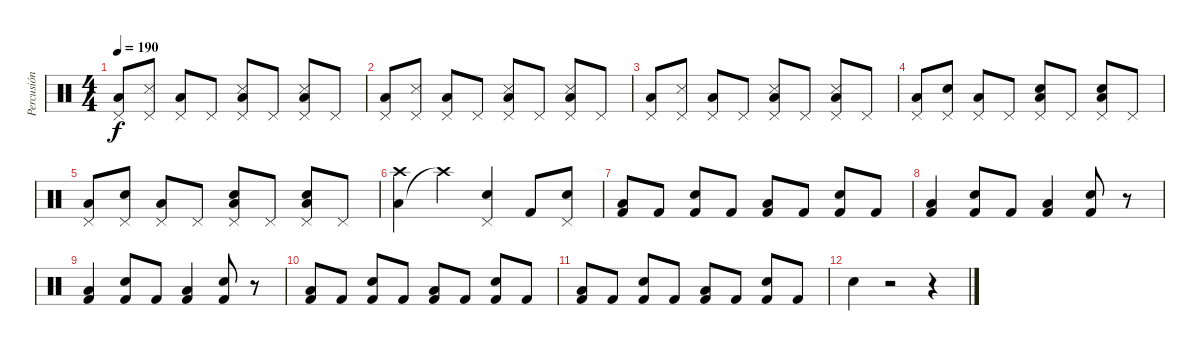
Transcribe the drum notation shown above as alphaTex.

\track ("Percusión" "Percusión") {instrument percussion}
\staff {score}
\articulation defaults
\ts (4 4)
\tempo 190
\clef neutral
\ks c
("Low Tom (hit)" "Pedal Hi-Hat (hit)").8{dy f} ("Metronome (hit)" "Pedal Hi-Hat (hit)").8 ("Low Tom (hit)" "Pedal Hi-Hat (hit)").8 "Pedal Hi-Hat (hit)".8 ("Metronome (hit)" "Low Tom (hit)" "Pedal Hi-Hat (hit)").8 "Pedal Hi-Hat (hit)".8 ("Metronome (hit)" "Low Tom (hit)" "Pedal Hi-Hat (hit)").8 "Pedal Hi-Hat (hit)".8 |
("Low Tom (hit)" "Pedal Hi-Hat (hit)").8 ("Metronome (hit)" "Pedal Hi-Hat (hit)").8 ("Low Tom (hit)" "Pedal Hi-Hat (hit)").8 "Pedal Hi-Hat (hit)".8 ("Metronome (hit)" "Low Tom (hit)" "Pedal Hi-Hat (hit)").8 "Pedal Hi-Hat (hit)".8 ("Metronome (hit)" "Low Tom (hit)" "Pedal Hi-Hat (hit)").8 "Pedal Hi-Hat (hit)".8 |
("Low Tom (hit)" "Pedal Hi-Hat (hit)").8 ("Metronome (hit)" "Pedal Hi-Hat (hit)").8 ("Low Tom (hit)" "Pedal Hi-Hat (hit)").8 "Pedal Hi-Hat (hit)".8 ("Metronome (hit)" "Low Tom (hit)" "Pedal Hi-Hat (hit)").8 "Pedal Hi-Hat (hit)".8 ("Metronome (hit)" "Low Tom (hit)" "Pedal Hi-Hat (hit)").8 "Pedal Hi-Hat (hit)".8 |
("Low Tom (hit)" "Pedal Hi-Hat (hit)").8 ("Snare (hit) 2" "Pedal Hi-Hat (hit)").8 ("Low Tom (hit)" "Pedal Hi-Hat (hit)").8 "Pedal Hi-Hat (hit)".8 ("Snare (hit) 2" "Low Tom (hit)" "Pedal Hi-Hat (hit)").8 "Pedal Hi-Hat (hit)".8 ("Snare (hit) 2" "Low Tom (hit)" "Pedal Hi-Hat (hit)").8 "Pedal Hi-Hat (hit)".8 |
("Low Tom (hit)" "Pedal Hi-Hat (hit)").8 ("Snare (hit) 2" "Pedal Hi-Hat (hit)").8 ("Low Tom (hit)" "Pedal Hi-Hat (hit)").8 "Pedal Hi-Hat (hit)".8 ("Snare (hit) 2" "Low Tom (hit)" "Pedal Hi-Hat (hit)").8 "Pedal Hi-Hat (hit)".8 ("Snare (hit) 2" "Low Tom (hit)" "Pedal Hi-Hat (hit)").8 "Pedal Hi-Hat (hit)".8 |
("Low Tom (hit)" "Crash high (hit)").4 "Crash high (hit)"{t}.4 ("Snare (hit) 2" "Pedal Hi-Hat (hit)").4 "Kick (hit) 2".8 ("Snare (hit) 2" "Pedal Hi-Hat (hit)").8 |
("Low Tom (hit)" "Kick (hit) 2").8 "Kick (hit) 2".8 ("Snare (hit) 2" "Kick (hit) 2").8 "Kick (hit) 2".8 ("Low Tom (hit)" "Kick (hit) 2").8 "Kick (hit) 2".8 ("Snare (hit) 2" "Kick (hit) 2").8 "Kick (hit) 2".8 |
("Low Tom (hit)" "Kick (hit) 2").4 ("Snare (hit) 2" "Kick (hit) 2").8 "Kick (hit) 2".8 ("Low Tom (hit)" "Kick (hit) 2").4 ("Snare (hit) 2" "Kick (hit) 2").8 r.8 |
("Low Tom (hit)" "Kick (hit) 2").4 ("Snare (hit) 2" "Kick (hit) 2").8 "Kick (hit) 2".8 ("Low Tom (hit)" "Kick (hit) 2").4 ("Snare (hit) 2" "Kick (hit) 2").8 r.8 |
("Low Tom (hit)" "Kick (hit) 2").8 "Kick (hit) 2".8 ("Snare (hit) 2" "Kick (hit) 2").8 "Kick (hit) 2".8 ("Low Tom (hit)" "Kick (hit) 2").8 "Kick (hit) 2".8 ("Snare (hit) 2" "Kick (hit) 2").8 "Kick (hit) 2".8 |
("Low Tom (hit)" "Kick (hit) 2").8 "Kick (hit) 2".8 ("Snare (hit) 2" "Kick (hit) 2").8 "Kick (hit) 2".8 ("Low Tom (hit)" "Kick (hit) 2").8 "Kick (hit) 2".8 ("Snare (hit) 2" "Kick (hit) 2").8 "Kick (hit) 2".8 |
"Snare (hit) 2".4 r.2 r.4
